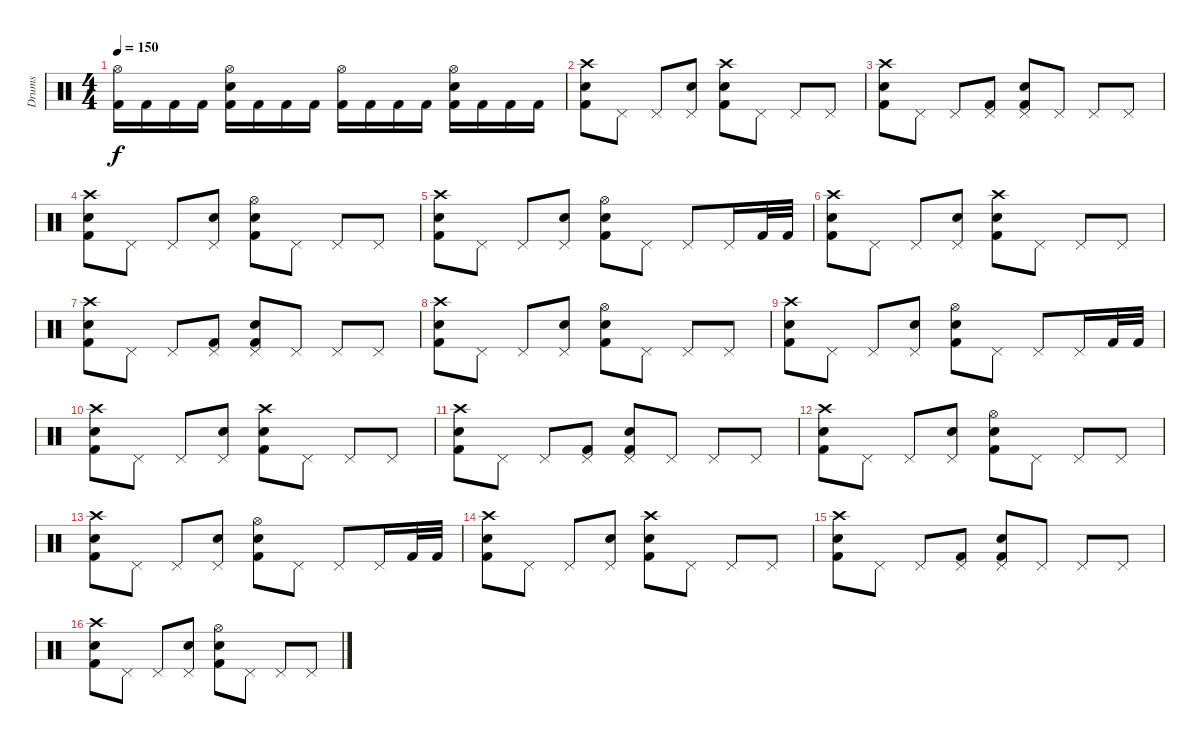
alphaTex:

\track ("Drums" "Drums") {instrument percussion}
\staff {score}
\articulation defaults
\ts (4 4)
\tempo 150
\clef neutral
\ks c
("Hi-Hat (open)" "Kick (hit) 2").16{dy f} "Kick (hit) 2".16 "Kick (hit) 2".16 "Kick (hit) 2".16 ("Snare (hit) 2" "Hi-Hat (open)" "Kick (hit) 2").16 "Kick (hit) 2".16 "Kick (hit) 2".16 "Kick (hit) 2".16 ("Hi-Hat (open)" "Kick (hit) 2").16 "Kick (hit) 2".16 "Kick (hit) 2".16 "Kick (hit) 2".16 ("Snare (hit) 2" "Hi-Hat (open)" "Kick (hit) 2").16 "Kick (hit) 2".16 "Kick (hit) 2".16 "Kick (hit) 2".16 |
("Snare (hit) 2" "Crash high (hit)" "Kick (hit) 2").8 "Pedal Hi-Hat (hit)".8 "Pedal Hi-Hat (hit)".8 ("Pedal Hi-Hat (hit)" "Snare (hit) 2").8 ("Snare (hit) 2" "Crash high (hit)" "Kick (hit) 2").8 "Pedal Hi-Hat (hit)".8 "Pedal Hi-Hat (hit)".8 "Pedal Hi-Hat (hit)".8 |
("Snare (hit) 2" "Crash high (hit)" "Kick (hit) 2").8 "Pedal Hi-Hat (hit)".8 "Pedal Hi-Hat (hit)".8 ("Pedal Hi-Hat (hit)" "Kick (hit) 2").8 ("Snare (hit) 2" "Pedal Hi-Hat (hit)" "Kick (hit) 2").8 "Pedal Hi-Hat (hit)".8 "Pedal Hi-Hat (hit)".8 "Pedal Hi-Hat (hit)".8 |
("Snare (hit) 2" "Crash high (hit)" "Kick (hit) 2").8 "Pedal Hi-Hat (hit)".8 "Pedal Hi-Hat (hit)".8 ("Pedal Hi-Hat (hit)" "Snare (hit) 2").8 ("Snare (hit) 2" "Hi-Hat (open)" "Kick (hit) 2").8 "Pedal Hi-Hat (hit)".8 "Pedal Hi-Hat (hit)".8 "Pedal Hi-Hat (hit)".8 |
("Snare (hit) 2" "Crash high (hit)" "Kick (hit) 2").8 "Pedal Hi-Hat (hit)".8 "Pedal Hi-Hat (hit)".8 ("Pedal Hi-Hat (hit)" "Snare (hit) 2").8 ("Snare (hit) 2" "Hi-Hat (open)" "Kick (hit) 2").8 "Pedal Hi-Hat (hit)".8 "Pedal Hi-Hat (hit)".8 "Pedal Hi-Hat (hit)".16 "Kick (hit) 2".32 "Kick (hit) 2".32 |
("Snare (hit) 2" "Crash high (hit)" "Kick (hit) 2").8 "Pedal Hi-Hat (hit)".8 "Pedal Hi-Hat (hit)".8 ("Pedal Hi-Hat (hit)" "Snare (hit) 2").8 ("Snare (hit) 2" "Crash high (hit)" "Kick (hit) 2").8 "Pedal Hi-Hat (hit)".8 "Pedal Hi-Hat (hit)".8 "Pedal Hi-Hat (hit)".8 |
("Snare (hit) 2" "Crash high (hit)" "Kick (hit) 2").8 "Pedal Hi-Hat (hit)".8 "Pedal Hi-Hat (hit)".8 ("Pedal Hi-Hat (hit)" "Kick (hit) 2").8 ("Snare (hit) 2" "Pedal Hi-Hat (hit)" "Kick (hit) 2").8 "Pedal Hi-Hat (hit)".8 "Pedal Hi-Hat (hit)".8 "Pedal Hi-Hat (hit)".8 |
("Snare (hit) 2" "Crash high (hit)" "Kick (hit) 2").8 "Pedal Hi-Hat (hit)".8 "Pedal Hi-Hat (hit)".8 ("Pedal Hi-Hat (hit)" "Snare (hit) 2").8 ("Snare (hit) 2" "Hi-Hat (open)" "Kick (hit) 2").8 "Pedal Hi-Hat (hit)".8 "Pedal Hi-Hat (hit)".8 "Pedal Hi-Hat (hit)".8 |
("Snare (hit) 2" "Crash high (hit)" "Kick (hit) 2").8 "Pedal Hi-Hat (hit)".8 "Pedal Hi-Hat (hit)".8 ("Pedal Hi-Hat (hit)" "Snare (hit) 2").8 ("Snare (hit) 2" "Hi-Hat (open)" "Kick (hit) 2").8 "Pedal Hi-Hat (hit)".8 "Pedal Hi-Hat (hit)".8 "Pedal Hi-Hat (hit)".16 "Kick (hit) 2".32 "Kick (hit) 2".32 |
("Snare (hit) 2" "Crash high (hit)" "Kick (hit) 2").8 "Pedal Hi-Hat (hit)".8 "Pedal Hi-Hat (hit)".8 ("Pedal Hi-Hat (hit)" "Snare (hit) 2").8 ("Snare (hit) 2" "Crash high (hit)" "Kick (hit) 2").8 "Pedal Hi-Hat (hit)".8 "Pedal Hi-Hat (hit)".8 "Pedal Hi-Hat (hit)".8 |
("Snare (hit) 2" "Crash high (hit)" "Kick (hit) 2").8 "Pedal Hi-Hat (hit)".8 "Pedal Hi-Hat (hit)".8 ("Pedal Hi-Hat (hit)" "Kick (hit) 2").8 ("Snare (hit) 2" "Pedal Hi-Hat (hit)" "Kick (hit) 2").8 "Pedal Hi-Hat (hit)".8 "Pedal Hi-Hat (hit)".8 "Pedal Hi-Hat (hit)".8 |
("Snare (hit) 2" "Crash high (hit)" "Kick (hit) 2").8 "Pedal Hi-Hat (hit)".8 "Pedal Hi-Hat (hit)".8 ("Pedal Hi-Hat (hit)" "Snare (hit) 2").8 ("Snare (hit) 2" "Hi-Hat (open)" "Kick (hit) 2").8 "Pedal Hi-Hat (hit)".8 "Pedal Hi-Hat (hit)".8 "Pedal Hi-Hat (hit)".8 |
("Snare (hit) 2" "Crash high (hit)" "Kick (hit) 2").8 "Pedal Hi-Hat (hit)".8 "Pedal Hi-Hat (hit)".8 ("Pedal Hi-Hat (hit)" "Snare (hit) 2").8 ("Snare (hit) 2" "Hi-Hat (open)" "Kick (hit) 2").8 "Pedal Hi-Hat (hit)".8 "Pedal Hi-Hat (hit)".8 "Pedal Hi-Hat (hit)".16 "Kick (hit) 2".32 "Kick (hit) 2".32 |
("Snare (hit) 2" "Crash high (hit)" "Kick (hit) 2").8 "Pedal Hi-Hat (hit)".8 "Pedal Hi-Hat (hit)".8 ("Pedal Hi-Hat (hit)" "Snare (hit) 2").8 ("Snare (hit) 2" "Crash high (hit)" "Kick (hit) 2").8 "Pedal Hi-Hat (hit)".8 "Pedal Hi-Hat (hit)".8 "Pedal Hi-Hat (hit)".8 |
("Snare (hit) 2" "Crash high (hit)" "Kick (hit) 2").8 "Pedal Hi-Hat (hit)".8 "Pedal Hi-Hat (hit)".8 ("Pedal Hi-Hat (hit)" "Kick (hit) 2").8 ("Snare (hit) 2" "Pedal Hi-Hat (hit)" "Kick (hit) 2").8 "Pedal Hi-Hat (hit)".8 "Pedal Hi-Hat (hit)".8 "Pedal Hi-Hat (hit)".8 |
("Snare (hit) 2" "Crash high (hit)" "Kick (hit) 2").8 "Pedal Hi-Hat (hit)".8 "Pedal Hi-Hat (hit)".8 ("Pedal Hi-Hat (hit)" "Snare (hit) 2").8 ("Snare (hit) 2" "Hi-Hat (open)" "Kick (hit) 2").8 "Pedal Hi-Hat (hit)".8 "Pedal Hi-Hat (hit)".8 "Pedal Hi-Hat (hit)".8
